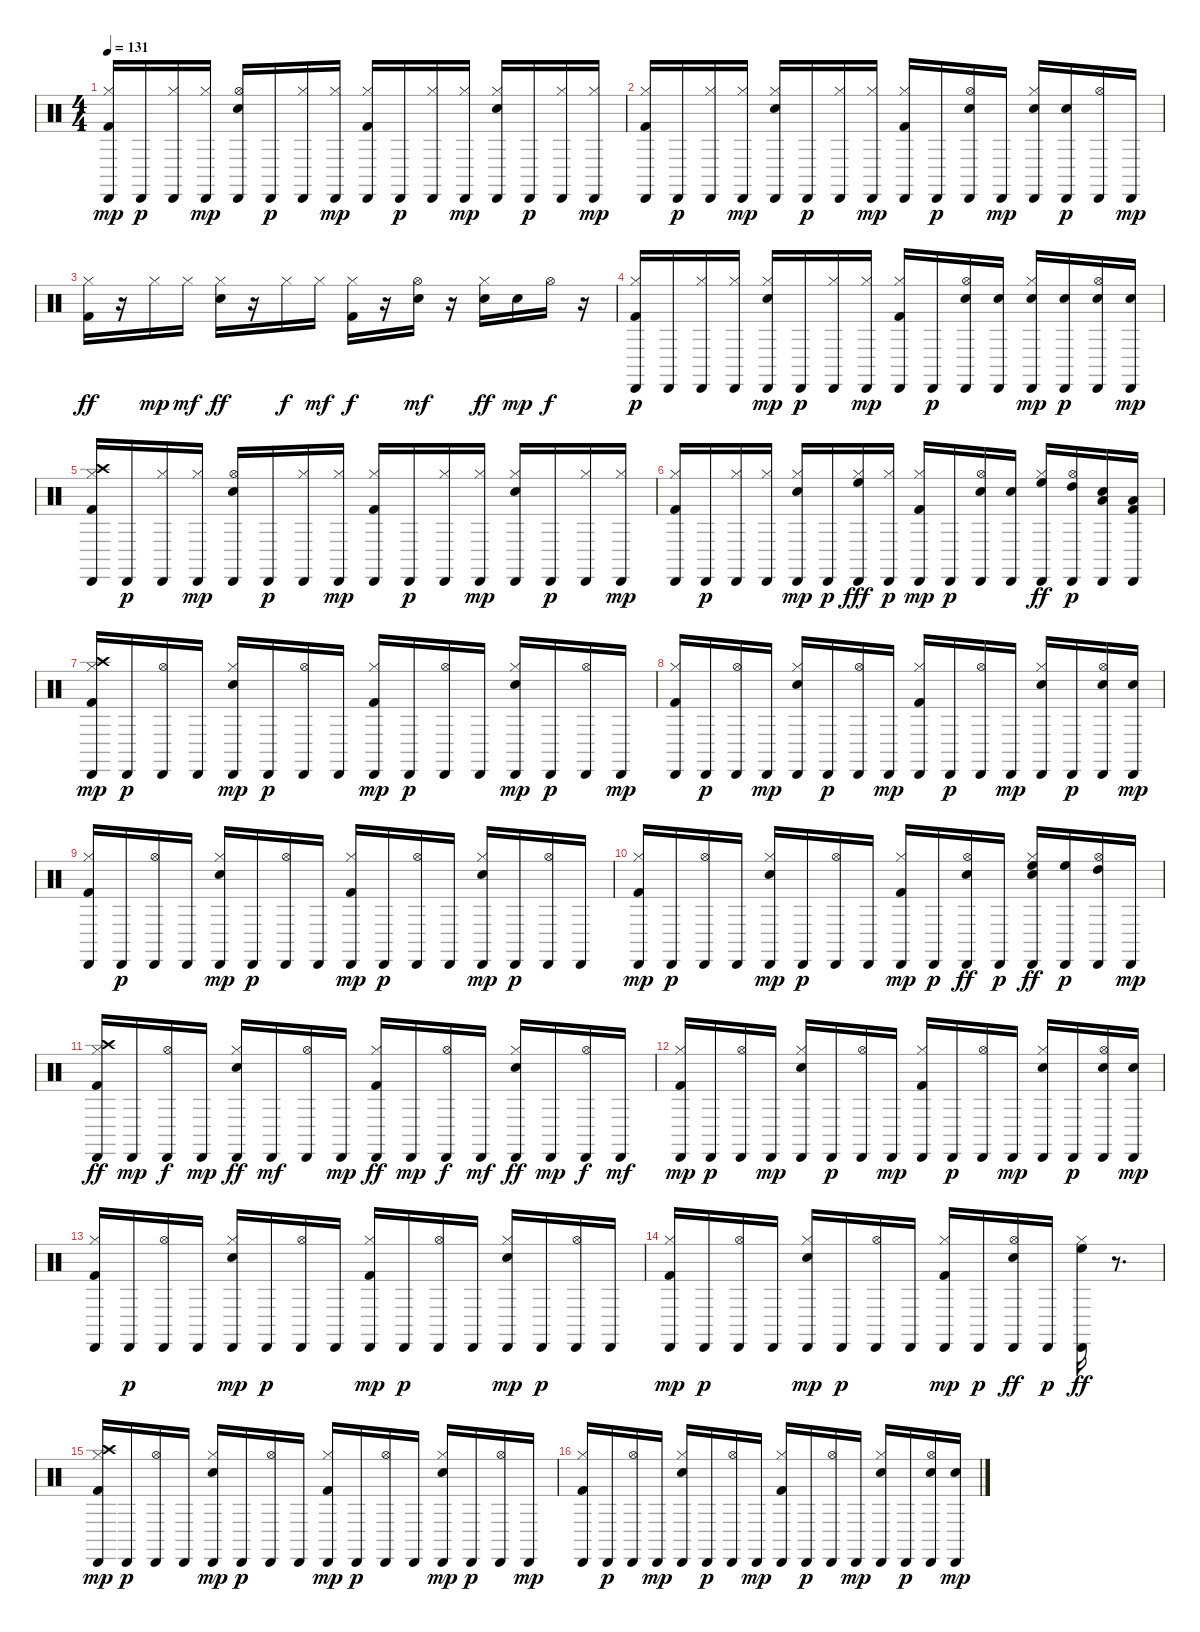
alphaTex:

\track "" {instrument percussion}
\staff {score}
\articulation defaults
\ts (4 4)
\tempo 131
\clef neutral
\ks c
("Kick (hit) 2" "Hi-Hat (closed)" "Cabasa (hit)").16{dy mp} "Cabasa (hit)".16{dy p} ("Hi-Hat (closed)" "Cabasa (hit)").16 ("Hi-Hat (closed)" "Cabasa (hit)").16{dy mp} ("Snare (hit) 2" "Hi-Hat (open)" "Cabasa (hit)").16 "Cabasa (hit)".16{dy p} ("Hi-Hat (closed)" "Cabasa (hit)").16 ("Hi-Hat (closed)" "Cabasa (hit)").16{dy mp} ("Kick (hit) 2" "Hi-Hat (closed)" "Cabasa (hit)").16 "Cabasa (hit)".16{dy p} ("Hi-Hat (closed)" "Cabasa (hit)").16 ("Hi-Hat (closed)" "Cabasa (hit)").16{dy mp} ("Snare (hit) 2" "Hi-Hat (closed)" "Cabasa (hit)").16 "Cabasa (hit)".16{dy p} ("Hi-Hat (closed)" "Cabasa (hit)").16 ("Hi-Hat (closed)" "Cabasa (hit)").16{dy mp} |
("Kick (hit) 2" "Hi-Hat (closed)" "Cabasa (hit)").16 "Cabasa (hit)".16{dy p} ("Hi-Hat (closed)" "Cabasa (hit)").16 ("Hi-Hat (closed)" "Cabasa (hit)").16{dy mp} ("Snare (hit) 2" "Hi-Hat (closed)" "Cabasa (hit)").16 "Cabasa (hit)".16{dy p} ("Hi-Hat (closed)" "Cabasa (hit)").16 ("Hi-Hat (closed)" "Cabasa (hit)").16{dy mp} ("Kick (hit) 2" "Hi-Hat (closed)" "Cabasa (hit)").16 "Cabasa (hit)".16{dy p} ("Snare (hit) 2" "Hi-Hat (open)" "Cabasa (hit)").16 "Cabasa (hit)".16{dy mp} ("Snare (hit) 2" "Hi-Hat (closed)" "Cabasa (hit)").16 ("Snare (hit) 2" "Cabasa (hit)").16{dy p} ("Hi-Hat (open)" "Cabasa (hit)").16 "Cabasa (hit)".16{dy mp} |
("Kick (hit) 2" "Hi-Hat (closed)").16{dy ff} r.16 "Hi-Hat (closed)".16{dy mp} "Hi-Hat (closed)".16{dy mf} ("Snare (hit) 2" "Hi-Hat (closed)").16{dy ff} r.16 "Hi-Hat (closed)".16{dy f} "Hi-Hat (closed)".16{dy mf} ("Kick (hit) 2" "Hi-Hat (closed)").16{dy f} r.16 ("Snare (hit) 2" "Hi-Hat (open)").16{dy mf} r.16 ("Snare (hit) 2" "Hi-Hat (closed)").16{dy ff} "Snare (hit) 2".16{dy mp} "Hi-Hat (open)".16{dy f} r.16 |
("Kick (hit) 2" "Hi-Hat (closed)" "Cabasa (hit)").16{dy p} "Cabasa (hit)".16 ("Hi-Hat (closed)" "Cabasa (hit)").16 ("Hi-Hat (closed)" "Cabasa (hit)").16 ("Snare (hit) 2" "Hi-Hat (closed)" "Cabasa (hit)").16{dy mp} "Cabasa (hit)".16{dy p} ("Hi-Hat (closed)" "Cabasa (hit)").16 ("Hi-Hat (closed)" "Cabasa (hit)").16{dy mp} ("Kick (hit) 2" "Hi-Hat (closed)" "Cabasa (hit)").16 "Cabasa (hit)".16{dy p} ("Snare (hit) 2" "Hi-Hat (open)" "Cabasa (hit)").16 ("Snare (hit) 2" "Cabasa (hit)").16 ("Snare (hit) 2" "Hi-Hat (closed)" "Cabasa (hit)").16{dy mp} ("Snare (hit) 2" "Cabasa (hit)").16{dy p} ("Snare (hit) 2" "Hi-Hat (open)" "Cabasa (hit)").16 ("Snare (hit) 2" "Cabasa (hit)").16{dy mp} |
("Kick (hit) 2" "Hi-Hat (closed)" "Crash high (hit)" "Cabasa (hit)").16 "Cabasa (hit)".16{dy p} ("Hi-Hat (closed)" "Cabasa (hit)").16 ("Hi-Hat (closed)" "Cabasa (hit)").16{dy mp} ("Snare (hit) 2" "Hi-Hat (open)" "Cabasa (hit)").16 "Cabasa (hit)".16{dy p} ("Hi-Hat (closed)" "Cabasa (hit)").16 ("Hi-Hat (closed)" "Cabasa (hit)").16{dy mp} ("Kick (hit) 2" "Hi-Hat (closed)" "Cabasa (hit)").16 "Cabasa (hit)".16{dy p} ("Hi-Hat (closed)" "Cabasa (hit)").16 ("Hi-Hat (closed)" "Cabasa (hit)").16{dy mp} ("Snare (hit) 2" "Hi-Hat (closed)" "Cabasa (hit)").16 "Cabasa (hit)".16{dy p} ("Hi-Hat (closed)" "Cabasa (hit)").16 ("Hi-Hat (closed)" "Cabasa (hit)").16{dy mp} |
("Kick (hit) 2" "Hi-Hat (closed)" "Cabasa (hit)").16 "Cabasa (hit)".16{dy p} ("Hi-Hat (closed)" "Cabasa (hit)").16 ("Hi-Hat (closed)" "Cabasa (hit)").16 ("Snare (hit) 2" "Hi-Hat (closed)" "Cabasa (hit)").16{dy mp} "Cabasa (hit)".16{dy p} ("Hi-Hat (closed)" "Cabasa (hit)" "High Floor Tom (hit)").16{dy fff} ("Hi-Hat (closed)" "Cabasa (hit)").16{dy p} ("Kick (hit) 2" "Hi-Hat (closed)" "Cabasa (hit)").16{dy mp} "Cabasa (hit)".16{dy p} ("Snare (hit) 2" "Hi-Hat (open)" "Cabasa (hit)").16 ("Snare (hit) 2" "Cabasa (hit)").16 ("Hi-Hat (closed)" "Cabasa (hit)" "High Floor Tom (hit)").16{dy ff} ("Hi-Hat (open)" "High Tom (hit)" "Cabasa (hit)").16{dy p} ("Snare (hit) 2" "Low Tom (hit)" "Cabasa (hit)").16 ("Kick (hit) 2" "Low Floor Tom (hit)" "Cabasa (hit)").16 |
("Kick (hit) 2" "Hi-Hat (closed)" "Crash high (hit)" "Cabasa (hit)").16{dy mp} "Cabasa (hit)".16{dy p} ("Hi-Hat (open)" "Cabasa (hit)").16 "Cabasa (hit)".16 ("Snare (hit) 2" "Hi-Hat (closed)" "Cabasa (hit)").16{dy mp} "Cabasa (hit)".16{dy p} ("Hi-Hat (open)" "Cabasa (hit)").16 "Cabasa (hit)".16 ("Kick (hit) 2" "Hi-Hat (closed)" "Cabasa (hit)").16{dy mp} "Cabasa (hit)".16{dy p} ("Hi-Hat (open)" "Cabasa (hit)").16 "Cabasa (hit)".16 ("Snare (hit) 2" "Hi-Hat (closed)" "Cabasa (hit)").16{dy mp} "Cabasa (hit)".16{dy p} ("Hi-Hat (open)" "Cabasa (hit)").16 "Cabasa (hit)".16{dy mp} |
("Kick (hit) 2" "Hi-Hat (closed)" "Cabasa (hit)").16 "Cabasa (hit)".16{dy p} ("Hi-Hat (open)" "Cabasa (hit)").16 "Cabasa (hit)".16{dy mp} ("Snare (hit) 2" "Hi-Hat (closed)" "Cabasa (hit)").16 "Cabasa (hit)".16{dy p} ("Hi-Hat (open)" "Cabasa (hit)").16 "Cabasa (hit)".16{dy mp} ("Kick (hit) 2" "Hi-Hat (closed)" "Cabasa (hit)").16 "Cabasa (hit)".16{dy p} ("Hi-Hat (open)" "Cabasa (hit)").16 "Cabasa (hit)".16{dy mp} ("Snare (hit) 2" "Hi-Hat (closed)" "Cabasa (hit)").16 "Cabasa (hit)".16{dy p} ("Snare (hit) 2" "Hi-Hat (open)" "Cabasa (hit)").16 ("Snare (hit) 2" "Cabasa (hit)").16{dy mp} |
("Kick (hit) 2" "Hi-Hat (closed)" "Cabasa (hit)").16 "Cabasa (hit)".16{dy p} ("Hi-Hat (open)" "Cabasa (hit)").16 "Cabasa (hit)".16 ("Snare (hit) 2" "Hi-Hat (closed)" "Cabasa (hit)").16{dy mp} "Cabasa (hit)".16{dy p} ("Hi-Hat (open)" "Cabasa (hit)").16 "Cabasa (hit)".16 ("Kick (hit) 2" "Hi-Hat (closed)" "Cabasa (hit)").16{dy mp} "Cabasa (hit)".16{dy p} ("Hi-Hat (open)" "Cabasa (hit)").16 "Cabasa (hit)".16 ("Snare (hit) 2" "Hi-Hat (closed)" "Cabasa (hit)").16{dy mp} "Cabasa (hit)".16{dy p} ("Hi-Hat (open)" "Cabasa (hit)").16 "Cabasa (hit)".16 |
("Kick (hit) 2" "Hi-Hat (closed)" "Cabasa (hit)").16{dy mp} "Cabasa (hit)".16{dy p} ("Hi-Hat (open)" "Cabasa (hit)").16 "Cabasa (hit)".16 ("Snare (hit) 2" "Hi-Hat (closed)" "Cabasa (hit)").16{dy mp} "Cabasa (hit)".16{dy p} ("Hi-Hat (open)" "Cabasa (hit)").16 "Cabasa (hit)".16 ("Kick (hit) 2" "Hi-Hat (closed)" "Cabasa (hit)").16{dy mp} "Cabasa (hit)".16{dy p} ("Hi-Hat (open)" "Cabasa (hit)" "Electric Snare (hit)").16{dy ff} "Cabasa (hit)".16{dy p} ("Snare (hit) 2" "Hi-Hat (closed)" "Cabasa (hit)" "High Floor Tom (hit)").16{dy ff} ("Cabasa (hit)" "High Floor Tom (hit)").16{dy p} ("Hi-Hat (open)" "High Tom (hit)" "Cabasa (hit)").16 "Cabasa (hit)".16{dy mp} |
("Kick (hit) 2" "Hi-Hat (closed)" "Crash high (hit)" "Cabasa (hit)").16{dy ff} "Cabasa (hit)".16{dy mp} ("Hi-Hat (open)" "Cabasa (hit)").16{dy f} "Cabasa (hit)".16{dy mp} ("Snare (hit) 2" "Hi-Hat (closed)" "Cabasa (hit)").16{dy ff} "Cabasa (hit)".16{dy mf} ("Hi-Hat (open)" "Cabasa (hit)").16 "Cabasa (hit)".16{dy mp} ("Kick (hit) 2" "Hi-Hat (closed)" "Cabasa (hit)").16{dy ff} "Cabasa (hit)".16{dy mp} ("Hi-Hat (open)" "Cabasa (hit)").16{dy f} "Cabasa (hit)".16{dy mf} ("Snare (hit) 2" "Hi-Hat (closed)" "Cabasa (hit)").16{dy ff} "Cabasa (hit)".16{dy mp} ("Hi-Hat (open)" "Cabasa (hit)").16{dy f} "Cabasa (hit)".16{dy mf} |
("Kick (hit) 2" "Hi-Hat (closed)" "Cabasa (hit)").16{dy mp} "Cabasa (hit)".16{dy p} ("Hi-Hat (open)" "Cabasa (hit)").16 "Cabasa (hit)".16{dy mp} ("Snare (hit) 2" "Hi-Hat (closed)" "Cabasa (hit)").16 "Cabasa (hit)".16{dy p} ("Hi-Hat (open)" "Cabasa (hit)").16 "Cabasa (hit)".16{dy mp} ("Kick (hit) 2" "Hi-Hat (closed)" "Cabasa (hit)").16 "Cabasa (hit)".16{dy p} ("Hi-Hat (open)" "Cabasa (hit)").16 "Cabasa (hit)".16{dy mp} ("Snare (hit) 2" "Hi-Hat (closed)" "Cabasa (hit)").16 "Cabasa (hit)".16{dy p} ("Snare (hit) 2" "Hi-Hat (open)" "Cabasa (hit)").16 ("Snare (hit) 2" "Cabasa (hit)").16{dy mp} |
("Kick (hit) 2" "Hi-Hat (closed)" "Cabasa (hit)").16 "Cabasa (hit)".16{dy p} ("Hi-Hat (open)" "Cabasa (hit)").16 "Cabasa (hit)".16 ("Snare (hit) 2" "Hi-Hat (closed)" "Cabasa (hit)").16{dy mp} "Cabasa (hit)".16{dy p} ("Hi-Hat (open)" "Cabasa (hit)").16 "Cabasa (hit)".16 ("Kick (hit) 2" "Hi-Hat (closed)" "Cabasa (hit)").16{dy mp} "Cabasa (hit)".16{dy p} ("Hi-Hat (open)" "Cabasa (hit)").16 "Cabasa (hit)".16 ("Snare (hit) 2" "Hi-Hat (closed)" "Cabasa (hit)").16{dy mp} "Cabasa (hit)".16{dy p} ("Hi-Hat (open)" "Cabasa (hit)").16 "Cabasa (hit)".16 |
("Kick (hit) 2" "Hi-Hat (closed)" "Cabasa (hit)").16{dy mp} "Cabasa (hit)".16{dy p} ("Hi-Hat (open)" "Cabasa (hit)").16 "Cabasa (hit)".16 ("Snare (hit) 2" "Hi-Hat (closed)" "Cabasa (hit)").16{dy mp} "Cabasa (hit)".16{dy p} ("Hi-Hat (open)" "Cabasa (hit)").16 "Cabasa (hit)".16 ("Kick (hit) 2" "Hi-Hat (closed)" "Cabasa (hit)").16{dy mp} "Cabasa (hit)".16{dy p} ("Hi-Hat (open)" "Cabasa (hit)" "Electric Snare (hit)").16{dy ff} "Cabasa (hit)".16{dy p} ("Hi-Hat (closed)" "Cabasa (hit)" "High Floor Tom (hit)").16{dy ff} r.8{d} |
("Kick (hit) 2" "Hi-Hat (closed)" "Crash high (hit)" "Cabasa (hit)").16{dy mp} "Cabasa (hit)".16{dy p} ("Hi-Hat (open)" "Cabasa (hit)").16 "Cabasa (hit)".16 ("Snare (hit) 2" "Hi-Hat (closed)" "Cabasa (hit)").16{dy mp} "Cabasa (hit)".16{dy p} ("Hi-Hat (open)" "Cabasa (hit)").16 "Cabasa (hit)".16 ("Kick (hit) 2" "Hi-Hat (closed)" "Cabasa (hit)").16{dy mp} "Cabasa (hit)".16{dy p} ("Hi-Hat (open)" "Cabasa (hit)").16 "Cabasa (hit)".16 ("Snare (hit) 2" "Hi-Hat (closed)" "Cabasa (hit)").16{dy mp} "Cabasa (hit)".16{dy p} ("Hi-Hat (open)" "Cabasa (hit)").16 "Cabasa (hit)".16{dy mp} |
("Kick (hit) 2" "Hi-Hat (closed)" "Cabasa (hit)").16 "Cabasa (hit)".16{dy p} ("Hi-Hat (open)" "Cabasa (hit)").16 "Cabasa (hit)".16{dy mp} ("Snare (hit) 2" "Hi-Hat (closed)" "Cabasa (hit)").16 "Cabasa (hit)".16{dy p} ("Hi-Hat (open)" "Cabasa (hit)").16 "Cabasa (hit)".16{dy mp} ("Kick (hit) 2" "Hi-Hat (closed)" "Cabasa (hit)").16 "Cabasa (hit)".16{dy p} ("Hi-Hat (open)" "Cabasa (hit)").16 "Cabasa (hit)".16{dy mp} ("Snare (hit) 2" "Hi-Hat (closed)" "Cabasa (hit)").16 "Cabasa (hit)".16{dy p} ("Snare (hit) 2" "Hi-Hat (open)" "Cabasa (hit)").16 ("Snare (hit) 2" "Cabasa (hit)").16{dy mp}
